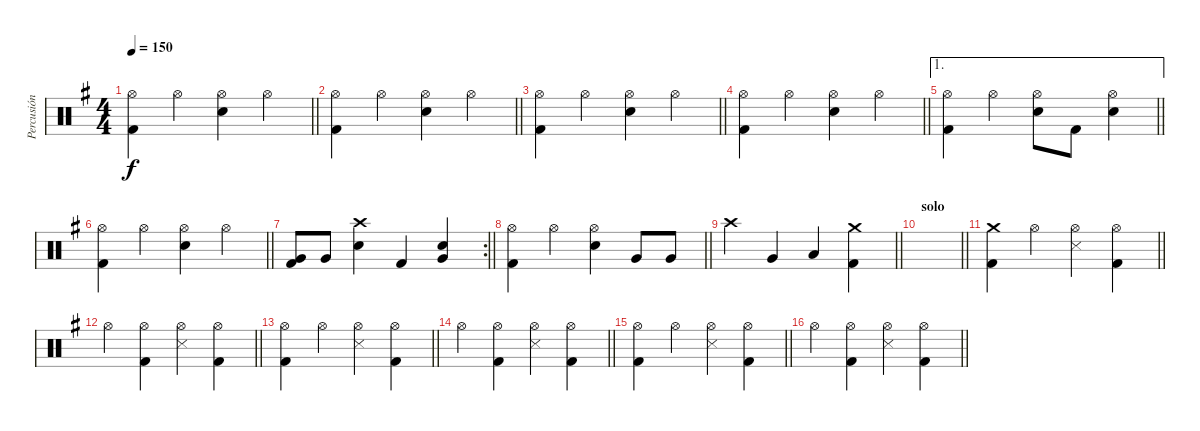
\track ("Percusión" "Percusión") {instrument percussion}
\staff {score}
\articulation defaults
\ts (4 4)
\tempo 150
\clef neutral
\barLineRight lightlight
\ks eminor
("Hi-Hat (open)" "Kick (hit) 2").4{dy f} "Hi-Hat (open)".4 ("Hi-Hat (open)" "Electric Snare (hit)").4 "Hi-Hat (open)".4 |
\barLineRight lightlight
("Hi-Hat (open)" "Kick (hit) 2").4 "Hi-Hat (open)".4 ("Hi-Hat (open)" "Electric Snare (hit)").4 "Hi-Hat (open)".4 |
\barLineRight lightlight
("Hi-Hat (open)" "Kick (hit) 2").4 "Hi-Hat (open)".4 ("Hi-Hat (open)" "Electric Snare (hit)").4 "Hi-Hat (open)".4 |
\barLineRight lightlight
("Hi-Hat (open)" "Kick (hit) 2").4 "Hi-Hat (open)".4 ("Hi-Hat (open)" "Electric Snare (hit)").4 "Hi-Hat (open)".4 |
\ae 1
\barLineRight lightlight
("Hi-Hat (open)" "Kick (hit) 2").4 "Hi-Hat (open)".4 ("Hi-Hat (open)" "Electric Snare (hit)").8 "Kick (hit) 2".8 ("Hi-Hat (open)" "Electric Snare (hit)").4 |
\barLineRight lightlight
("Hi-Hat (open)" "Kick (hit) 2").4 "Hi-Hat (open)".4 ("Hi-Hat (open)" "Electric Snare (hit)").4 "Hi-Hat (open)".4 |
\rc 2
\barLineRight lightlight
("Very Low Tom (hit)" "Kick (hit) 2").8 "Very Low Tom (hit)".8 ("Crash high (hit)" "Electric Snare (hit)").4 "Kick (hit) 2".4 ("Electric Snare (hit)" "Very Low Tom (hit)").4 |
\barLineRight lightlight
("Hi-Hat (open)" "Kick (hit) 2").4 "Hi-Hat (open)".4 ("Hi-Hat (open)" "Electric Snare (hit)").4 "Very Low Tom (hit)".8 "Very Low Tom (hit)".8 |
\barLineRight lightlight "Crash high (hit)".4 "Very Low Tom (hit)".4 "Low Floor Tom (hit)".4
("Crash medium (hit)" "Kick (hit) 2").4 |
\section ("" "solo")
\barLineRight lightlight
|
\barLineRight lightlight
("Crash medium (hit)" "Kick (hit) 2").4 "Hi-Hat (open)".4 ("Hi-Hat (open)" "Snare (side stick) 3").4 ("Hi-Hat (open)" "Kick (hit) 2").4 |
\barLineRight lightlight "Hi-Hat (open)".4
("Hi-Hat (open)" "Kick (hit) 2").4 ("Hi-Hat (open)" "Snare (side stick) 3").4 ("Hi-Hat (open)" "Kick (hit) 2").4 |
\barLineRight lightlight
("Hi-Hat (open)" "Kick (hit) 2").4 "Hi-Hat (open)".4 ("Hi-Hat (open)" "Snare (side stick) 3").4 ("Hi-Hat (open)" "Kick (hit) 2").4 |
\barLineRight lightlight "Hi-Hat (open)".4
("Hi-Hat (open)" "Kick (hit) 2").4 ("Hi-Hat (open)" "Snare (side stick) 3").4 ("Hi-Hat (open)" "Kick (hit) 2").4 |
\barLineRight lightlight
("Hi-Hat (open)" "Kick (hit) 2").4 "Hi-Hat (open)".4 ("Hi-Hat (open)" "Snare (side stick) 3").4 ("Hi-Hat (open)" "Kick (hit) 2").4 |
\barLineRight lightlight "Hi-Hat (open)".4
("Hi-Hat (open)" "Kick (hit) 2").4 ("Hi-Hat (open)" "Snare (side stick) 3").4 ("Hi-Hat (open)" "Kick (hit) 2").4
